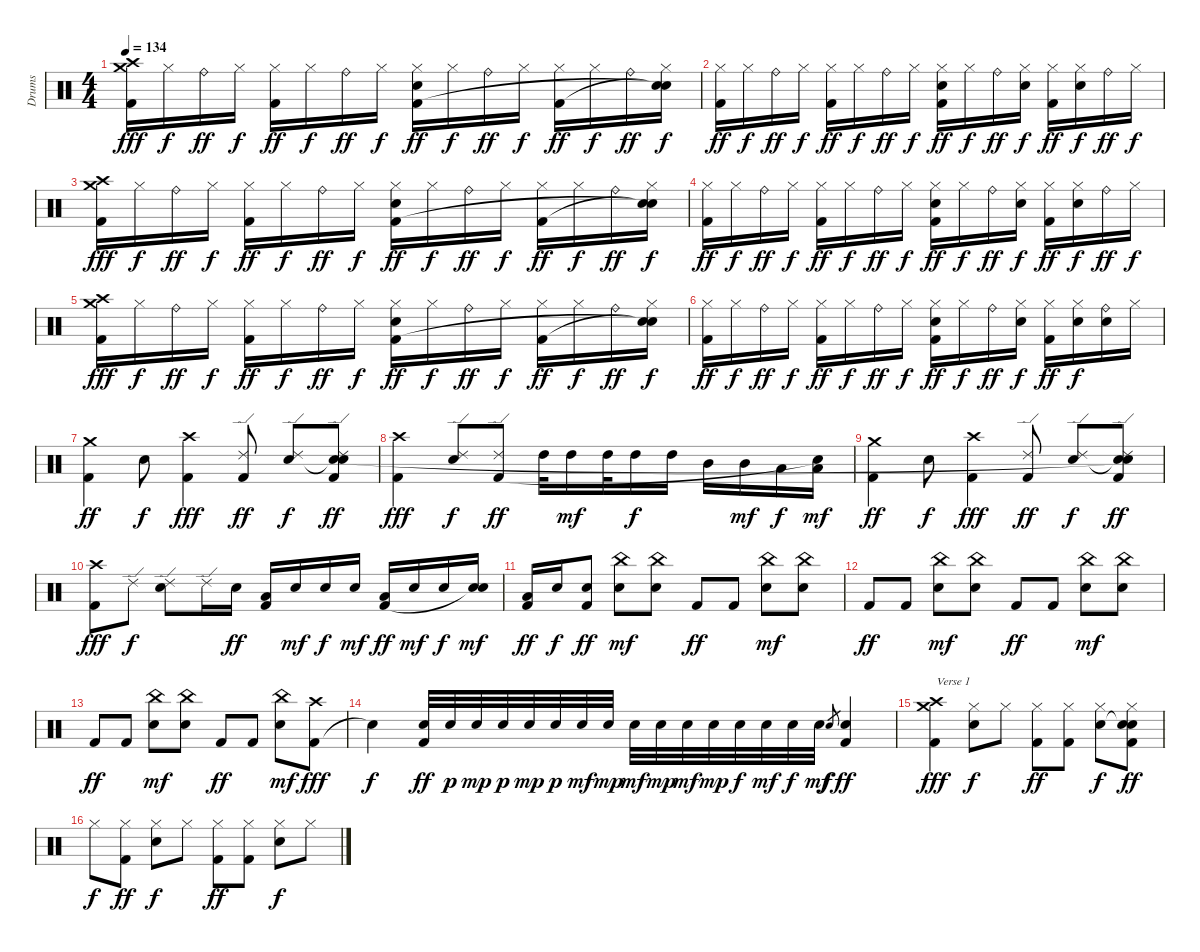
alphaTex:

\track ("Drums" "Drums") {instrument percussion}
\staff {score}
\articulation defaults
\ts (4 4)
\tempo 134
\clef neutral
\ks c
("Crash medium (hit)" "Kick (hit) 2" "Crash high (hit)").16{dy fff} "Hi-Hat (closed)".16{dy f} "Ride (bell)".16{dy ff} "Hi-Hat (closed)".16{dy f} ("Hi-Hat (closed)" "Kick (hit) 2").16{dy ff} "Hi-Hat (closed)".16{dy f} "Ride (bell)".16{dy ff} "Hi-Hat (closed)".16{dy f} ("Hi-Hat (closed)" "Snare (hit) 2" "Kick (hit) 2").16{dy ff} "Hi-Hat (closed)".16{dy f} "Ride (bell)".16{dy ff} "Hi-Hat (closed)".16{dy f} ("Hi-Hat (closed)" "Kick (hit) 2").16{dy ff} "Hi-Hat (closed)".16{dy f} "Ride (bell)".16{dy ff} ("Hi-Hat (closed)" "Snare (hit)"{t} "Snare (hit)"{t}).16{dy f} |
("Hi-Hat (closed)" "Kick (hit) 2").16{dy ff} "Hi-Hat (closed)".16{dy f} "Ride (bell)".16{dy ff} "Hi-Hat (closed)".16{dy f} ("Hi-Hat (closed)" "Kick (hit) 2").16{dy ff} "Hi-Hat (closed)".16{dy f} "Ride (bell)".16{dy ff} "Hi-Hat (closed)".16{dy f} ("Hi-Hat (closed)" "Snare (hit) 2" "Kick (hit) 2").16{dy ff} "Hi-Hat (closed)".16{dy f} "Ride (bell)".16{dy ff} ("Hi-Hat (closed)" "Snare (hit) 2").16{dy f} ("Hi-Hat (closed)" "Kick (hit) 2").16{dy ff} ("Hi-Hat (closed)" "Snare (hit) 2").16{dy f} "Ride (bell)".16{dy ff} "Hi-Hat (closed)".16{dy f} |
("Crash medium (hit)" "Kick (hit) 2" "Crash high (hit)").16{dy fff} "Hi-Hat (closed)".16{dy f} "Ride (bell)".16{dy ff} "Hi-Hat (closed)".16{dy f} ("Hi-Hat (closed)" "Kick (hit) 2").16{dy ff} "Hi-Hat (closed)".16{dy f} "Ride (bell)".16{dy ff} "Hi-Hat (closed)".16{dy f} ("Hi-Hat (closed)" "Snare (hit) 2" "Kick (hit) 2").16{dy ff} "Hi-Hat (closed)".16{dy f} "Ride (bell)".16{dy ff} "Hi-Hat (closed)".16{dy f} ("Hi-Hat (closed)" "Kick (hit) 2").16{dy ff} "Hi-Hat (closed)".16{dy f} "Ride (bell)".16{dy ff} ("Hi-Hat (closed)" "Snare (hit)"{t} "Snare (hit)"{t}).16{dy f} |
("Hi-Hat (closed)" "Kick (hit) 2").16{dy ff} "Hi-Hat (closed)".16{dy f} "Ride (bell)".16{dy ff} "Hi-Hat (closed)".16{dy f} ("Hi-Hat (closed)" "Kick (hit) 2").16{dy ff} "Hi-Hat (closed)".16{dy f} "Ride (bell)".16{dy ff} "Hi-Hat (closed)".16{dy f} ("Hi-Hat (closed)" "Snare (hit) 2" "Kick (hit) 2").16{dy ff} "Hi-Hat (closed)".16{dy f} "Ride (bell)".16{dy ff} ("Hi-Hat (closed)" "Snare (hit) 2").16{dy f} ("Hi-Hat (closed)" "Kick (hit) 2").16{dy ff} ("Hi-Hat (closed)" "Snare (hit) 2").16{dy f} "Ride (bell)".16{dy ff} "Hi-Hat (closed)".16{dy f} |
("Crash medium (hit)" "Kick (hit) 2" "Crash high (hit)").16{dy fff} "Hi-Hat (closed)".16{dy f} "Ride (bell)".16{dy ff} "Hi-Hat (closed)".16{dy f} ("Hi-Hat (closed)" "Kick (hit) 2").16{dy ff} "Hi-Hat (closed)".16{dy f} "Ride (bell)".16{dy ff} "Hi-Hat (closed)".16{dy f} ("Hi-Hat (closed)" "Snare (hit) 2" "Kick (hit) 2").16{dy ff} "Hi-Hat (closed)".16{dy f} "Ride (bell)".16{dy ff} "Hi-Hat (closed)".16{dy f} ("Hi-Hat (closed)" "Kick (hit) 2").16{dy ff} "Hi-Hat (closed)".16{dy f} "Ride (bell)".16{dy ff} ("Hi-Hat (closed)" "Snare (hit)"{t} "Snare (hit)"{t}).16{dy f} |
("Hi-Hat (closed)" "Kick (hit) 2").16{dy ff} "Hi-Hat (closed)".16{dy f} "Ride (bell)".16{dy ff} "Hi-Hat (closed)".16{dy f} ("Hi-Hat (closed)" "Kick (hit) 2").16{dy ff} "Hi-Hat (closed)".16{dy f} "Ride (bell)".16{dy ff} "Hi-Hat (closed)".16{dy f} ("Hi-Hat (closed)" "Snare (hit) 2" "Kick (hit) 2").16{dy ff} "Hi-Hat (closed)".16{dy f} "Ride (bell)".16{dy ff} ("Hi-Hat (closed)" "Snare (hit) 2").16{dy f} ("Hi-Hat (closed)" "Kick (hit) 2").16{dy ff} ("Hi-Hat (closed)" "Snare (hit) 2").16{dy f} ("Ride (bell)" "Snare (hit) 2").16 "Hi-Hat (closed)".16 |
("Crash medium (hit)" "Kick (hit) 2").4{dy ff} "Snare (hit) 2".8{dy f} ("Kick (hit) 2" "Crash high (hit)").4{dy fff} ("Ride (edge) 2" "Kick (hit) 2").8{dy ff} ("Ride (edge) 2" "Snare (hit) 2").8{dy f} ("Ride (edge) 2" "Snare (hit)"{t} "Kick (hit) 2" "Snare (hit)").8{dy ff} |
("Kick (hit) 2" "Crash high (hit)").4{dy fff} ("Ride (edge) 2" "Snare (hit) 2").8{dy f} ("Ride (edge) 2" "Kick (hit) 2").8{dy ff} "High Tom (hit)".32 "High Tom (hit)".16{dy mf} "High Tom (hit)".32 "High Tom (hit)".16{dy f} "High Tom (hit)".16 "Mid Tom (hit)".16 "Mid Tom (hit)".16{dy mf} "Low Tom (hit)".16{dy f} ("Low Tom (hit)" "Snare (hit)"{t}).16{dy mf} |
("Crash medium (hit)" "Kick (hit) 2").4{dy ff} "Snare (hit) 2".8{dy f} ("Kick (hit) 2" "Crash high (hit)").4{dy fff} ("Ride (edge) 2" "Kick (hit) 2").8{dy ff} ("Ride (edge) 2" "Snare (hit) 2").8{dy f} ("Ride (edge) 2" "Snare (hit)"{t} "Kick (hit) 2" "Snare (hit)"{t}).8{dy ff} |
("Kick (hit) 2" "Crash high (hit)").8{dy fff} "Ride (edge) 2".8{dy f} ("Ride (edge) 2" "Snare (hit) 2").8 "Ride (edge) 2".16 "Snare (hit) 2".16{dy ff} ("Low Tom (hit)" "Kick (hit) 2").16 "Snare (hit) 2".16{dy mf} "Snare (hit) 2".16{dy f} "Snare (hit) 2".16{dy mf} ("Low Tom (hit)" "Kick (hit) 2").16{dy ff} "Snare (hit) 2".16{dy mf} "Snare (hit) 2".16{dy f} ("Snare (hit) 2" "Snare (hit)"{t}).16{dy mf} |
("Low Tom (hit)" "Kick (hit) 2").16{dy ff} "Snare (hit) 2".16{dy f} ("Snare (hit) 2" "Kick (hit) 2").8{dy ff} ("China (hit)" "Snare (hit) 2").8{dy mf} ("China (hit)" "Snare (hit) 2").8 "Kick (hit) 2".8{dy ff} "Kick (hit) 2".8 ("China (hit)" "Snare (hit) 2").8{dy mf} ("China (hit)" "Snare (hit) 2").8 |
"Kick (hit) 2".8{dy ff} "Kick (hit) 2".8 ("China (hit)" "Snare (hit) 2").8{dy mf} ("China (hit)" "Snare (hit) 2").8 "Kick (hit) 2".8{dy ff} "Kick (hit) 2".8 ("China (hit)" "Snare (hit) 2").8{dy mf} ("China (hit)" "Snare (hit) 2").8 |
"Kick (hit) 2".8{dy ff} "Kick (hit) 2".8 ("China (hit)" "Snare (hit) 2").8{dy mf} ("China (hit)" "Snare (hit) 2").8 "Kick (hit) 2".8{dy ff} "Kick (hit) 2".8 ("China (hit)" "Snare (hit) 2").8{dy mf} ("Kick (hit) 2" "Crash high (hit)").8{dy fff} |
"Snare (hit)"{t}.4{dy f} ("Snare (hit) 2" "Kick (hit) 2").32{dy ff} "Snare (hit) 2".32{dy p} "Snare (hit) 2".32{dy mp} "Snare (hit) 2".32{dy p} "Snare (hit) 2".32{dy mp} "Snare (hit) 2".32{dy p} "Snare (hit) 2".32{dy mf} "Snare (hit) 2".32{dy mp} "Snare (hit) 2".32{dy mf} "Snare (hit) 2".32{dy mp} "Snare (hit) 2".32{dy mf} "Snare (hit) 2".32{dy mp} "Snare (hit) 2".32{dy f} "Snare (hit) 2".32{dy mf} "Snare (hit) 2".32{dy f} "Snare (hit) 2".32{dy mf} "Snare (hit) 2".8{gr dy f} ("Snare (hit) 2" "Kick (hit) 2").4{dy ff} |
("Crash medium (hit)" "Kick (hit) 2" "Crash high (hit)").4{txt "Verse 1" dy fff} ("Hi-Hat (closed)" "Snare (hit) 2").8{dy f} "Hi-Hat (closed)".8 ("Hi-Hat (closed)" "Kick (hit) 2").8{dy ff} ("Hi-Hat (closed)" "Kick (hit) 2").8 ("Hi-Hat (closed)" "Snare (hit) 2").8{dy f} ("Hi-Hat (closed)" "Snare (hit)"{t} "Kick (hit) 2" "Snare (hit)").8{dy ff} |
"Hi-Hat (closed)".8{dy f} ("Hi-Hat (closed)" "Kick (hit) 2").8{dy ff} ("Hi-Hat (closed)" "Snare (hit) 2").8{dy f} "Hi-Hat (closed)".8 ("Hi-Hat (closed)" "Kick (hit) 2").8{dy ff} ("Hi-Hat (closed)" "Kick (hit) 2").8 ("Hi-Hat (closed)" "Snare (hit) 2").8{dy f} "Hi-Hat (closed)".8
